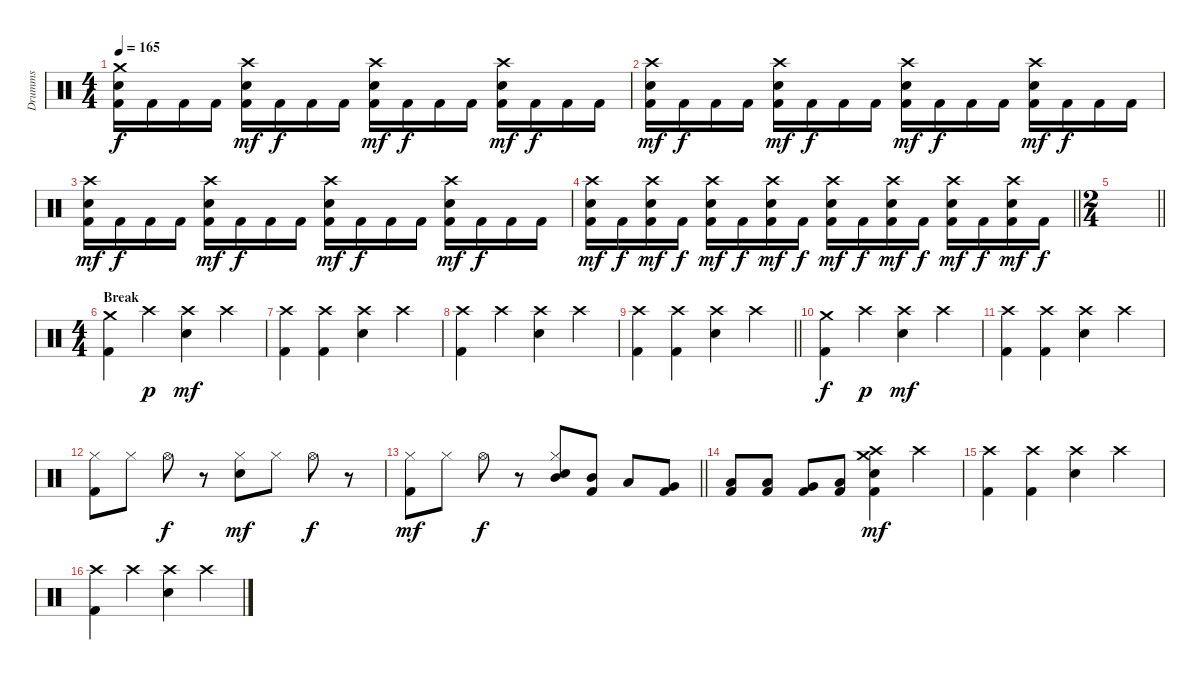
\track ("Drumms" "Drumms") {instrument percussion}
\staff {score}
\articulation defaults
\ts (4 4)
\tempo 165
\clef neutral
\ks c
("Crash medium (hit)" "Snare (hit) 2" "Kick (hit) 2").16{dy f} "Kick (hit) 2".16 "Kick (hit) 2".16 "Kick (hit) 2".16 ("Crash high (hit)" "Snare (hit) 2" "Kick (hit) 2").16{dy mf} "Kick (hit) 2".16{dy f} "Kick (hit) 2".16 "Kick (hit) 2".16 ("Crash high (hit)" "Snare (hit) 2" "Kick (hit) 2").16{dy mf} "Kick (hit) 2".16{dy f} "Kick (hit) 2".16 "Kick (hit) 2".16 ("Crash high (hit)" "Snare (hit) 2" "Kick (hit) 2").16{dy mf} "Kick (hit) 2".16{dy f} "Kick (hit) 2".16 "Kick (hit) 2".16 |
("Crash high (hit)" "Snare (hit) 2" "Kick (hit) 2").16{dy mf} "Kick (hit) 2".16{dy f} "Kick (hit) 2".16 "Kick (hit) 2".16 ("Crash high (hit)" "Snare (hit) 2" "Kick (hit) 2").16{dy mf} "Kick (hit) 2".16{dy f} "Kick (hit) 2".16 "Kick (hit) 2".16 ("Crash high (hit)" "Snare (hit) 2" "Kick (hit) 2").16{dy mf} "Kick (hit) 2".16{dy f} "Kick (hit) 2".16 "Kick (hit) 2".16 ("Crash high (hit)" "Snare (hit) 2" "Kick (hit) 2").16{dy mf} "Kick (hit) 2".16{dy f} "Kick (hit) 2".16 "Kick (hit) 2".16 |
("Crash high (hit)" "Snare (hit) 2" "Kick (hit) 2").16{dy mf} "Kick (hit) 2".16{dy f} "Kick (hit) 2".16 "Kick (hit) 2".16 ("Crash high (hit)" "Snare (hit) 2" "Kick (hit) 2").16{dy mf} "Kick (hit) 2".16{dy f} "Kick (hit) 2".16 "Kick (hit) 2".16 ("Crash high (hit)" "Snare (hit) 2" "Kick (hit) 2").16{dy mf} "Kick (hit) 2".16{dy f} "Kick (hit) 2".16 "Kick (hit) 2".16 ("Crash high (hit)" "Snare (hit) 2" "Kick (hit) 2").16{dy mf} "Kick (hit) 2".16{dy f} "Kick (hit) 2".16 "Kick (hit) 2".16 |
\barLineRight lightlight
("Crash high (hit)" "Snare (hit) 2" "Kick (hit) 2").16{dy mf} "Kick (hit) 2".16{dy f} ("Crash high (hit)" "Snare (hit) 2" "Kick (hit) 2").16{dy mf} "Kick (hit) 2".16{dy f} ("Crash high (hit)" "Snare (hit) 2" "Kick (hit) 2").16{dy mf} "Kick (hit) 2".16{dy f} ("Crash high (hit)" "Snare (hit) 2" "Kick (hit) 2").16{dy mf} "Kick (hit) 2".16{dy f} ("Crash high (hit)" "Snare (hit) 2" "Kick (hit) 2").16{dy mf} "Kick (hit) 2".16{dy f} ("Crash high (hit)" "Snare (hit) 2" "Kick (hit) 2").16{dy mf} "Kick (hit) 2".16{dy f} ("Crash high (hit)" "Snare (hit) 2" "Kick (hit) 2").16{dy mf} "Kick (hit) 2".16{dy f} ("Crash high (hit)" "Snare (hit) 2" "Kick (hit) 2").16{dy mf} "Kick (hit) 2".16{dy f} |
\ts (2 4)
\barLineRight lightlight
|
\ts (4 4)
\section ("" "Break")
("Crash medium (hit)" "Kick (hit) 2").4 "Crash high (hit)".4{dy p} ("Crash high (hit)" "Snare (hit) 2").4{dy mf} "Crash high (hit)".4 |
("Crash high (hit)" "Kick (hit) 2").4 ("Crash high (hit)" "Kick (hit) 2").4 ("Crash high (hit)" "Snare (hit) 2").4 "Crash high (hit)".4 |
("Crash high (hit)" "Kick (hit) 2").4 "Crash high (hit)".4 ("Crash high (hit)" "Snare (hit) 2").4 "Crash high (hit)".4 |
\barLineRight lightlight
("Crash high (hit)" "Kick (hit) 2").4 ("Crash high (hit)" "Kick (hit) 2").4 ("Crash high (hit)" "Snare (hit) 2").4 "Crash high (hit)".4 |
("Crash medium (hit)" "Kick (hit) 2").4{dy f} "Crash high (hit)".4{dy p} ("Crash high (hit)" "Snare (hit) 2").4{dy mf} "Crash high (hit)".4 |
("Crash high (hit)" "Kick (hit) 2").4 ("Crash high (hit)" "Kick (hit) 2").4 ("Crash high (hit)" "Snare (hit) 2").4 "Crash high (hit)".4 |
("Hi-Hat (closed)" "Kick (hit) 2").8 "Hi-Hat (closed)".8 "Hi-Hat (open)".8{dy f} r.8 ("Hi-Hat (closed)" "Snare (hit) 2").8{dy mf} "Hi-Hat (closed)".8 "Hi-Hat (open)".8{dy f} r.8 |
\barLineRight lightlight
("Hi-Hat (closed)" "Kick (hit) 2").8{dy mf} "Hi-Hat (closed)".8 "Hi-Hat (open)".8{dy f} r.8 ("Mid Tom (hit)" "Hi-Hat (closed)" "Snare (hit) 2").8 ("Mid Tom (hit)" "Kick (hit) 2").8 "Low Tom (hit)".8 ("Very Low Tom (hit)" "Kick (hit) 2").8 |
("Low Tom (hit)" "Kick (hit) 2").8 ("Low Tom (hit)" "Kick (hit) 2").8 ("Very Low Tom (hit)" "Kick (hit) 2").8 ("Low Floor Tom (hit)" "Kick (hit) 2").8 ("Crash medium (hit)" "Crash high (hit)" "Snare (hit) 2" "Kick (hit) 2").4{dy mf} "Crash high (hit)".4 |
("Crash high (hit)" "Kick (hit) 2").4 ("Crash high (hit)" "Kick (hit) 2").4 ("Crash high (hit)" "Snare (hit) 2").4 "Crash high (hit)".4 |
("Crash high (hit)" "Kick (hit) 2").4 "Crash high (hit)".4 ("Crash high (hit)" "Snare (hit) 2").4 "Crash high (hit)".4
